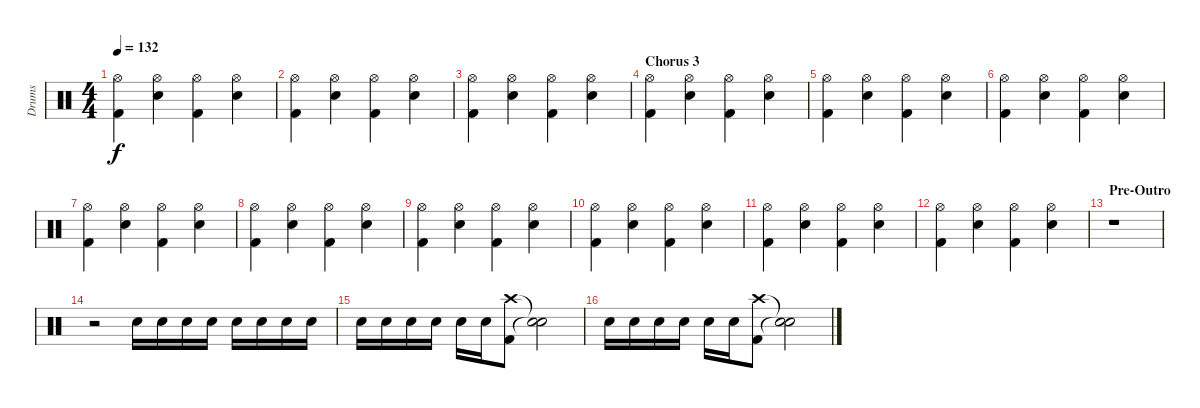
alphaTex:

\track ("Drums" "Drums") {instrument percussion}
\staff {score}
\articulation defaults
\ts (4 4)
\tempo 132
\clef neutral
\ks c
("Kick (hit) 2" "Hi-Hat (open)").4{dy f} ("Snare (hit) 2" "Hi-Hat (open)").4 ("Kick (hit) 2" "Hi-Hat (open)").4 ("Snare (hit) 2" "Hi-Hat (open)").4 |
("Kick (hit) 2" "Hi-Hat (open)").4 ("Snare (hit) 2" "Hi-Hat (open)").4 ("Kick (hit) 2" "Hi-Hat (open)").4 ("Snare (hit) 2" "Hi-Hat (open)").4 |
("Kick (hit) 2" "Hi-Hat (open)").4 ("Snare (hit) 2" "Hi-Hat (open)").4 ("Kick (hit) 2" "Hi-Hat (open)").4 ("Snare (hit) 2" "Hi-Hat (open)").4 |
\section ("" "Chorus 3")
("Kick (hit) 2" "Hi-Hat (open)").4 ("Snare (hit) 2" "Hi-Hat (open)").4 ("Kick (hit) 2" "Hi-Hat (open)").4 ("Snare (hit) 2" "Hi-Hat (open)").4 |
("Kick (hit) 2" "Hi-Hat (open)").4 ("Snare (hit) 2" "Hi-Hat (open)").4 ("Kick (hit) 2" "Hi-Hat (open)").4 ("Snare (hit) 2" "Hi-Hat (open)").4 |
("Kick (hit) 2" "Hi-Hat (open)").4 ("Snare (hit) 2" "Hi-Hat (open)").4 ("Kick (hit) 2" "Hi-Hat (open)").4 ("Snare (hit) 2" "Hi-Hat (open)").4 |
("Kick (hit) 2" "Hi-Hat (open)").4 ("Snare (hit) 2" "Hi-Hat (open)").4 ("Kick (hit) 2" "Hi-Hat (open)").4 ("Snare (hit) 2" "Hi-Hat (open)").4 |
("Kick (hit) 2" "Hi-Hat (open)").4 ("Snare (hit) 2" "Hi-Hat (open)").4 ("Kick (hit) 2" "Hi-Hat (open)").4 ("Snare (hit) 2" "Hi-Hat (open)").4 |
("Kick (hit) 2" "Hi-Hat (open)").4 ("Snare (hit) 2" "Hi-Hat (open)").4 ("Kick (hit) 2" "Hi-Hat (open)").4 ("Snare (hit) 2" "Hi-Hat (open)").4 |
("Kick (hit) 2" "Hi-Hat (open)").4 ("Snare (hit) 2" "Hi-Hat (open)").4 ("Kick (hit) 2" "Hi-Hat (open)").4 ("Snare (hit) 2" "Hi-Hat (open)").4 |
("Kick (hit) 2" "Hi-Hat (open)").4 ("Snare (hit) 2" "Hi-Hat (open)").4 ("Kick (hit) 2" "Hi-Hat (open)").4 ("Snare (hit) 2" "Hi-Hat (open)").4 |
("Kick (hit) 2" "Hi-Hat (open)").4 ("Snare (hit) 2" "Hi-Hat (open)").4 ("Kick (hit) 2" "Hi-Hat (open)").4 ("Snare (hit) 2" "Hi-Hat (open)").4 |
\section ("" "Pre-Outro")
r.1 |
r.2 "Snare (hit) 2".16 "Snare (hit) 2".16 "Snare (hit) 2".16 "Snare (hit) 2".16 "Snare (hit) 2".16 "Snare (hit) 2".16 "Snare (hit) 2".16 "Snare (hit) 2".16 |
"Snare (hit) 2".16 "Snare (hit) 2".16 "Snare (hit) 2".16 "Snare (hit) 2".16 "Snare (hit) 2".16 "Snare (hit) 2".16 ("Kick (hit) 2" "Crash high (hit)").8 ("Snare (hit)"{t} "Snare (hit)"{t}).2 |
"Snare (hit) 2".16 "Snare (hit) 2".16 "Snare (hit) 2".16 "Snare (hit) 2".16 "Snare (hit) 2".16 "Snare (hit) 2".16 ("Kick (hit) 2" "Crash high (hit)").8 ("Snare (hit)"{t} "Snare (hit)"{t}).2
